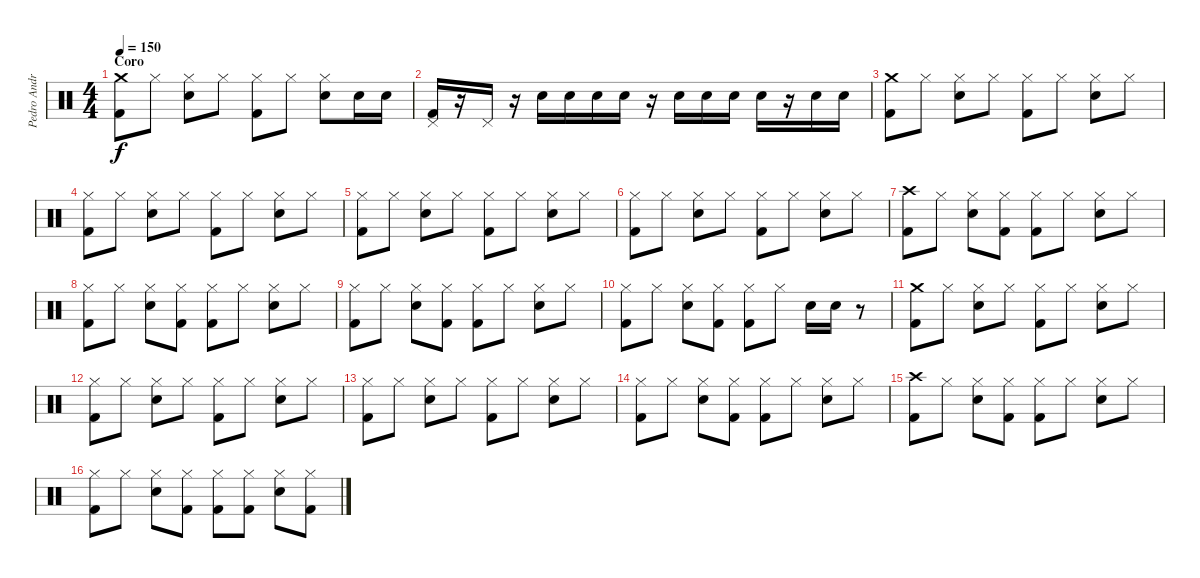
\track ("Pedro Andreu" "Pedro Andr") {instrument percussion}
\staff {score}
\articulation defaults
\ts (4 4)
\section ("" "Coro")
\tempo 150
\clef neutral
\ks c
("Crash medium (hit)" "Kick (hit) 2").8{dy f} "Hi-Hat (closed)".8 ("Hi-Hat (closed)" "Snare (hit) 2").8 "Hi-Hat (closed)".8 ("Hi-Hat (closed)" "Kick (hit) 2").8 "Hi-Hat (closed)".8 ("Hi-Hat (closed)" "Snare (hit) 2").8 "Snare (hit) 2".16 "Snare (hit) 2".16 |
("Pedal Hi-Hat (hit)" "Kick (hit) 2").16 r.16 "Pedal Hi-Hat (hit)".16 r.16 "Snare (hit) 2".16 "Snare (hit) 2".16 "Snare (hit) 2".16 "Snare (hit) 2".16 r.16 "Snare (hit) 2".16 "Snare (hit) 2".16 "Snare (hit) 2".16 "Snare (hit) 2".16 r.16 "Snare (hit) 2".16 "Snare (hit) 2".16 |
("Crash medium (hit)" "Kick (hit) 2").8 "Hi-Hat (closed)".8 ("Hi-Hat (closed)" "Snare (hit) 2").8 "Hi-Hat (closed)".8 ("Hi-Hat (closed)" "Kick (hit) 2").8 "Hi-Hat (closed)".8 ("Hi-Hat (closed)" "Snare (hit) 2").8 "Hi-Hat (closed)".8 |
("Hi-Hat (closed)" "Kick (hit) 2").8 "Hi-Hat (closed)".8 ("Hi-Hat (closed)" "Snare (hit) 2").8 "Hi-Hat (closed)".8 ("Hi-Hat (closed)" "Kick (hit) 2").8 "Hi-Hat (closed)".8 ("Hi-Hat (closed)" "Snare (hit) 2").8 "Hi-Hat (closed)".8 |
("Hi-Hat (closed)" "Kick (hit) 2").8 "Hi-Hat (closed)".8 ("Hi-Hat (closed)" "Snare (hit) 2").8 "Hi-Hat (closed)".8 ("Hi-Hat (closed)" "Kick (hit) 2").8 "Hi-Hat (closed)".8 ("Hi-Hat (closed)" "Snare (hit) 2").8 "Hi-Hat (closed)".8 |
("Hi-Hat (closed)" "Kick (hit) 2").8 "Hi-Hat (closed)".8 ("Hi-Hat (closed)" "Snare (hit) 2").8 "Hi-Hat (closed)".8 ("Hi-Hat (closed)" "Kick (hit) 2").8 "Hi-Hat (closed)".8 ("Hi-Hat (closed)" "Snare (hit) 2").8 "Hi-Hat (closed)".8 |
("Crash high (hit)" "Kick (hit) 2").8 "Hi-Hat (closed)".8 ("Hi-Hat (closed)" "Snare (hit) 2").8 ("Hi-Hat (closed)" "Kick (hit) 2").8 ("Hi-Hat (closed)" "Kick (hit) 2").8 "Hi-Hat (closed)".8 ("Hi-Hat (closed)" "Snare (hit) 2").8 "Hi-Hat (closed)".8 |
("Hi-Hat (closed)" "Kick (hit) 2").8 "Hi-Hat (closed)".8 ("Hi-Hat (closed)" "Snare (hit) 2").8 ("Hi-Hat (closed)" "Kick (hit) 2").8 ("Hi-Hat (closed)" "Kick (hit) 2").8 "Hi-Hat (closed)".8 ("Hi-Hat (closed)" "Snare (hit) 2").8 "Hi-Hat (closed)".8 |
("Hi-Hat (closed)" "Kick (hit) 2").8 "Hi-Hat (closed)".8 ("Hi-Hat (closed)" "Snare (hit) 2").8 ("Hi-Hat (closed)" "Kick (hit) 2").8 ("Hi-Hat (closed)" "Kick (hit) 2").8 "Hi-Hat (closed)".8 ("Hi-Hat (closed)" "Snare (hit) 2").8 "Hi-Hat (closed)".8 |
("Hi-Hat (closed)" "Kick (hit) 2").8 "Hi-Hat (closed)".8 ("Hi-Hat (closed)" "Snare (hit) 2").8 ("Hi-Hat (closed)" "Kick (hit) 2").8 ("Hi-Hat (closed)" "Kick (hit) 2").8 "Hi-Hat (closed)".8 "Snare (hit) 2".16 "Snare (hit) 2".16 r.8 |
("Crash medium (hit)" "Kick (hit) 2").8 "Hi-Hat (closed)".8 ("Hi-Hat (closed)" "Snare (hit) 2").8 "Hi-Hat (closed)".8 ("Hi-Hat (closed)" "Kick (hit) 2").8 "Hi-Hat (closed)".8 ("Hi-Hat (closed)" "Snare (hit) 2").8 "Hi-Hat (closed)".8 |
("Hi-Hat (closed)" "Kick (hit) 2").8 "Hi-Hat (closed)".8 ("Hi-Hat (closed)" "Snare (hit) 2").8 "Hi-Hat (closed)".8 ("Hi-Hat (closed)" "Kick (hit) 2").8 "Hi-Hat (closed)".8 ("Hi-Hat (closed)" "Snare (hit) 2").8 "Hi-Hat (closed)".8 |
("Hi-Hat (closed)" "Kick (hit) 2").8 "Hi-Hat (closed)".8 ("Hi-Hat (closed)" "Snare (hit) 2").8 "Hi-Hat (closed)".8 ("Hi-Hat (closed)" "Kick (hit) 2").8 "Hi-Hat (closed)".8 ("Hi-Hat (closed)" "Snare (hit) 2").8 "Hi-Hat (closed)".8 |
("Hi-Hat (closed)" "Kick (hit) 2").8 "Hi-Hat (closed)".8 ("Hi-Hat (closed)" "Snare (hit) 2").8 ("Hi-Hat (closed)" "Kick (hit) 2").8 ("Hi-Hat (closed)" "Kick (hit) 2").8 "Hi-Hat (closed)".8 ("Hi-Hat (closed)" "Snare (hit) 2").8 "Hi-Hat (closed)".8 |
("Crash high (hit)" "Kick (hit) 2").8 "Hi-Hat (closed)".8 ("Hi-Hat (closed)" "Snare (hit) 2").8 ("Hi-Hat (closed)" "Kick (hit) 2").8 ("Hi-Hat (closed)" "Kick (hit) 2").8 "Hi-Hat (closed)".8 ("Hi-Hat (closed)" "Snare (hit) 2").8 "Hi-Hat (closed)".8 |
("Hi-Hat (closed)" "Kick (hit) 2").8 "Hi-Hat (closed)".8 ("Hi-Hat (closed)" "Snare (hit) 2").8 ("Hi-Hat (closed)" "Kick (hit) 2").8 ("Hi-Hat (closed)" "Kick (hit) 2").8 ("Hi-Hat (closed)" "Kick (hit) 2").8 ("Hi-Hat (closed)" "Snare (hit) 2").8 ("Hi-Hat (closed)" "Kick (hit) 2").8
